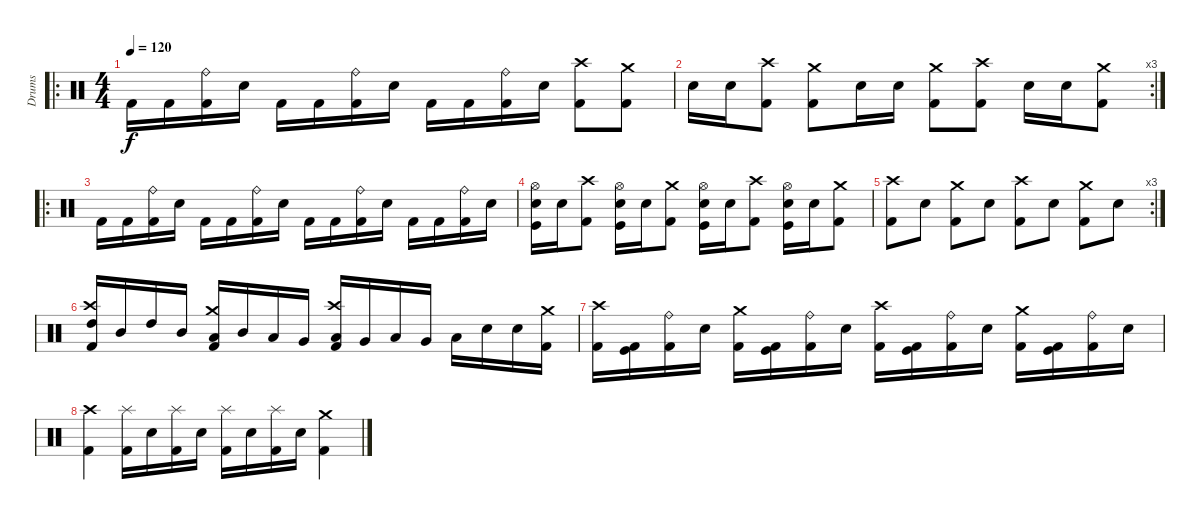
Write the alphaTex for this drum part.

\track ("Drums" "Drums") {instrument percussion}
\staff {score}
\articulation defaults
\ro
\ts (4 4)
\tempo 120
\clef neutral
\ks c "Kick (hit) 2".16{dy f} "Kick (hit) 2".16
("Ride (bell)" "Kick (hit) 2").16 "Electric Snare (hit)".16 "Kick (hit) 2".16 "Kick (hit) 2".16 ("Ride (bell)" "Kick (hit) 2").16 "Electric Snare (hit)".16 "Kick (hit) 2".16 "Kick (hit) 2".16 ("Ride (bell)" "Kick (hit) 2").16 "Electric Snare (hit)".16 ("Crash high (hit)" "Kick (hit) 2").8 ("Crash medium (hit)" "Kick (hit) 2").8 |
\rc 3 "Electric Snare (hit)".16 "Electric Snare (hit)".16
("Crash high (hit)" "Kick (hit) 2").8 ("Crash medium (hit)" "Kick (hit) 2").8 "Electric Snare (hit)".16 "Electric Snare (hit)".16 ("Crash medium (hit)" "Kick (hit) 2").8 ("Crash high (hit)" "Kick (hit) 2").8 "Electric Snare (hit)".16 "Electric Snare (hit)".16 ("Crash medium (hit)" "Kick (hit) 2").8 |
\ro "Kick (hit) 2".16 "Kick (hit) 2".16
("Ride (bell)" "Kick (hit) 2").16 "Electric Snare (hit)".16 "Kick (hit) 2".16 "Kick (hit) 2".16 ("Ride (bell)" "Kick (hit) 2").16 "Electric Snare (hit)".16 "Kick (hit) 2".16 "Kick (hit) 2".16 ("Ride (bell)" "Kick (hit) 2").16 "Electric Snare (hit)".16 "Kick (hit) 2".16 "Kick (hit) 2".16 ("Ride (bell)" "Kick (hit) 2").16 "Electric Snare (hit)".16 |
("Hi-Hat (open)" "Electric Snare (hit)" "Kick (hit)").16 "Electric Snare (hit)".16 ("Crash high (hit)" "Kick (hit) 2").8 ("Hi-Hat (open)" "Electric Snare (hit)" "Kick (hit)").16 "Electric Snare (hit)".16 ("Crash medium (hit)" "Kick (hit) 2").8 ("Hi-Hat (open)" "Electric Snare (hit)" "Kick (hit)").16 "Electric Snare (hit)".16 ("Crash high (hit)" "Kick (hit) 2").8 ("Hi-Hat (open)" "Electric Snare (hit)" "Kick (hit)").16 "Electric Snare (hit)".16 ("Crash medium (hit)" "Kick (hit) 2").8 |
\rc 3
("Crash high (hit)" "Kick (hit) 2").8 "Electric Snare (hit)".8 ("Crash medium (hit)" "Kick (hit) 2").8 "Electric Snare (hit)".8 ("Crash high (hit)" "Kick (hit) 2").8 "Electric Snare (hit)".8 ("Crash medium (hit)" "Kick (hit) 2").8 "Electric Snare (hit)".8 |
("Crash high (hit)" "High Tom (hit)" "Kick (hit) 2").16 "Mid Tom (hit)".16 "High Tom (hit)".16 "Mid Tom (hit)".16 ("Crash medium (hit)" "Low Tom (hit)" "Kick (hit) 2").16 "Mid Tom (hit)".16 "Low Tom (hit)".16 "Very Low Tom (hit)".16 ("Crash high (hit)" "Low Tom (hit)" "Kick (hit) 2").16 "Very Low Tom (hit)".16 "Low Floor Tom (hit)".16 "Very Low Tom (hit)".16 "Low Floor Tom (hit)".16 "Electric Snare (hit)".16 "Electric Snare (hit)".16 ("Crash medium (hit)" "Kick (hit) 2").16 |
("Crash high (hit)" "Kick (hit) 2").16 ("Kick (hit) 2" "Kick (hit)").16 ("Ride (bell)" "Kick (hit) 2").16 "Electric Snare (hit)".16 ("Crash medium (hit)" "Kick (hit) 2").16 ("Kick (hit) 2" "Kick (hit)").16 ("Ride (bell)" "Kick (hit) 2").16 "Electric Snare (hit)".16 ("Crash high (hit)" "Kick (hit) 2").16 ("Kick (hit) 2" "Kick (hit)").16 ("Ride (bell)" "Kick (hit) 2").16 "Electric Snare (hit)".16 ("Crash medium (hit)" "Kick (hit) 2").16 ("Kick (hit) 2" "Kick (hit)").16 ("Ride (bell)" "Kick (hit) 2").16 "Electric Snare (hit)".16 |
("Crash high (hit)" "Kick (hit) 2").4 ("Splash (hit)" "Kick (hit) 2").16 "Electric Snare (hit)".16 ("Splash (hit)" "Kick (hit) 2").16 "Electric Snare (hit)".16 ("Splash (hit)" "Kick (hit) 2").16 "Electric Snare (hit)".16 ("Splash (hit)" "Kick (hit) 2").16 "Electric Snare (hit)".16 ("Crash medium (hit)" "Kick (hit) 2").4
